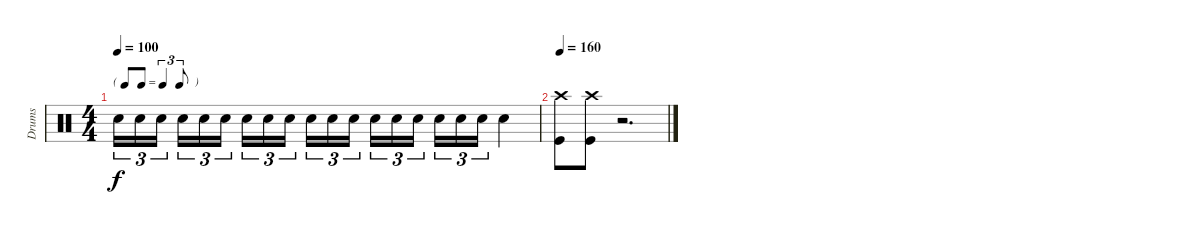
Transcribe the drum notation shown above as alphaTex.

\track ("Drums" "Drums") {instrument percussion}
\staff {score}
\articulation defaults
\ts (4 4)
\tf triplet8th
\tempo 100
\clef neutral
\ks c "Snare (hit) 2".16{tu (3 2) dy f} "Snare (hit) 2".16{tu (3 2)} "Snare (hit) 2".16{tu (3 2) beam splitsecondary} "Snare (hit) 2".16{tu (3 2)} "Snare (hit) 2".16{tu (3 2)} "Snare (hit) 2".16{tu (3 2)} "Snare (hit) 2".16{tu (3 2)} "Snare (hit) 2".16{tu (3 2)} "Snare (hit) 2".16{tu (3 2) beam splitsecondary} "Snare (hit) 2".16{tu (3 2)} "Snare (hit) 2".16{tu (3 2)} "Snare (hit) 2".16{tu (3 2)} "Snare (hit) 2".16{tu (3 2)} "Snare (hit) 2".16{tu (3 2)} "Snare (hit) 2".16{tu (3 2) beam splitsecondary} "Snare (hit) 2".16{tu (3 2)} "Snare (hit) 2".16{tu (3 2)} "Snare (hit) 2".16{tu (3 2)} "Snare (hit) 2".4
|
\tempo 160
("Kick (hit)" "Crash high (hit)").8 ("Crash high (hit)" "Kick (hit)").8 r.2{d}
